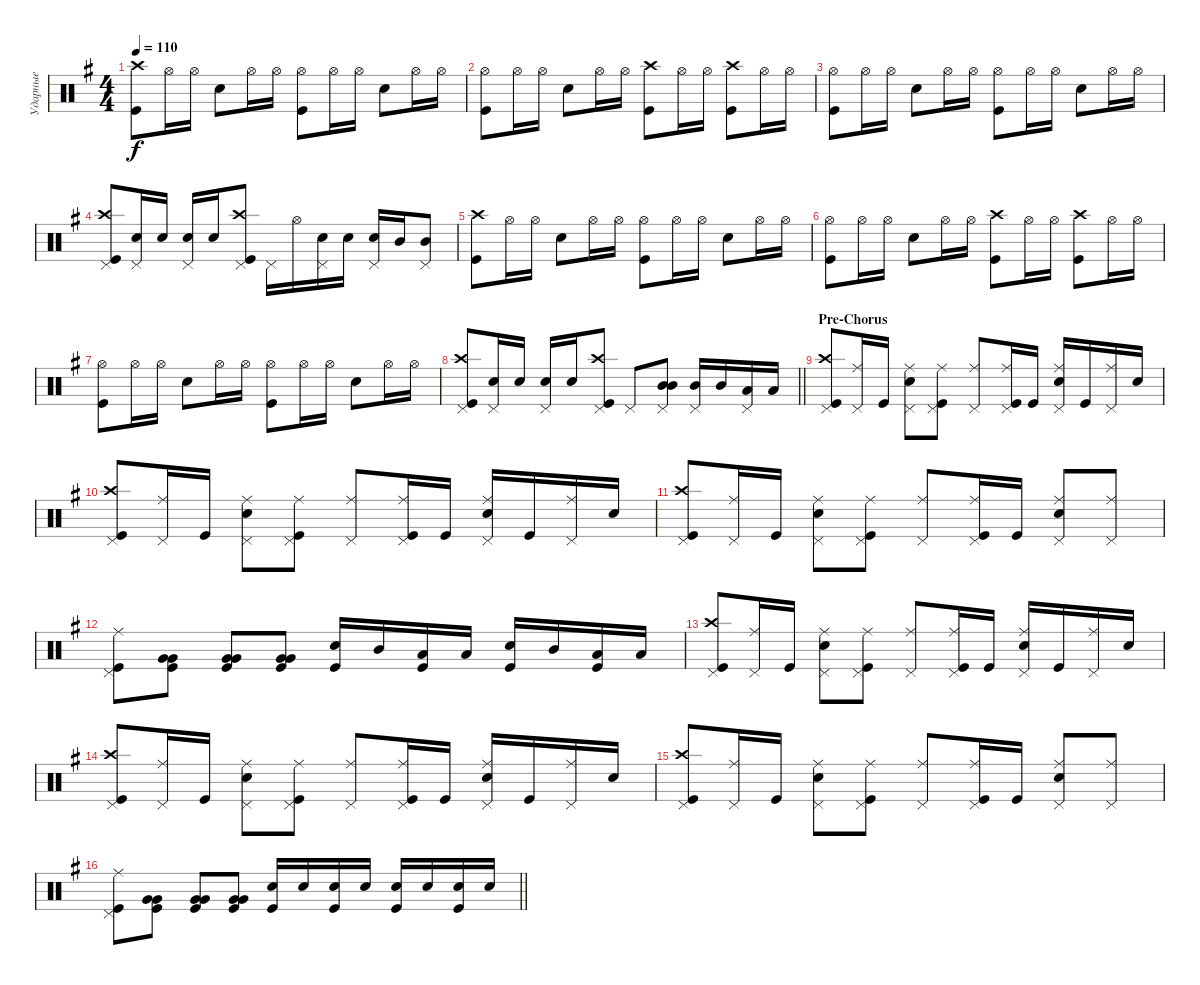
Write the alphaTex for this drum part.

\track ("Ударные" "Ударные") {instrument percussion}
\staff {score}
\articulation defaults
\ts (4 4)
\tempo 110
\clef neutral
\ks eminor
("Kick (hit)" "Crash high (hit)").8{dy f} "Hi-Hat (open)".16 "Hi-Hat (open)".16 "Snare (hit) 2".8 "Hi-Hat (open)".16 "Hi-Hat (open)".16 ("Kick (hit)" "Hi-Hat (open)").8 "Hi-Hat (open)".16 "Hi-Hat (open)".16 "Snare (hit) 2".8 "Hi-Hat (open)".16 "Hi-Hat (open)".16 |
("Kick (hit)" "Hi-Hat (open)").8 "Hi-Hat (open)".16 "Hi-Hat (open)".16 "Snare (hit) 2".8 "Hi-Hat (open)".16 "Hi-Hat (open)".16 ("Kick (hit)" "Crash high (hit)").8 "Hi-Hat (open)".16 "Hi-Hat (open)".16 ("Kick (hit)" "Crash high (hit)").8 "Hi-Hat (open)".16 "Hi-Hat (open)".16 |
("Kick (hit)" "Hi-Hat (open)").8 "Hi-Hat (open)".16 "Hi-Hat (open)".16 "Snare (hit) 2".8 "Hi-Hat (open)".16 "Hi-Hat (open)".16 ("Kick (hit)" "Hi-Hat (open)").8 "Hi-Hat (open)".16 "Hi-Hat (open)".16 "Snare (hit) 2".8 "Hi-Hat (open)".16 "Hi-Hat (open)".16 |
("Kick (hit)" "Crash high (hit)" "Pedal Hi-Hat (hit)").8 ("Snare (hit) 2" "Pedal Hi-Hat (hit)").16 "Snare (hit) 2".16 ("Snare (hit) 2" "Pedal Hi-Hat (hit)").16 "Snare (hit) 2".16 ("Kick (hit)" "Crash high (hit)" "Pedal Hi-Hat (hit)").8 "Pedal Hi-Hat (hit)".16 "Hi-Hat (open)".16 ("Snare (hit) 2" "Pedal Hi-Hat (hit)").16 "Snare (hit) 2".16 ("Snare (hit) 2" "Pedal Hi-Hat (hit)").16 "Mid Tom (hit)".16 ("Mid Tom (hit)" "Pedal Hi-Hat (hit)").8 |
("Kick (hit)" "Crash high (hit)").8 "Hi-Hat (open)".16 "Hi-Hat (open)".16 "Snare (hit) 2".8 "Hi-Hat (open)".16 "Hi-Hat (open)".16 ("Kick (hit)" "Hi-Hat (open)").8 "Hi-Hat (open)".16 "Hi-Hat (open)".16 "Snare (hit) 2".8 "Hi-Hat (open)".16 "Hi-Hat (open)".16 |
("Kick (hit)" "Hi-Hat (open)").8 "Hi-Hat (open)".16 "Hi-Hat (open)".16 "Snare (hit) 2".8 "Hi-Hat (open)".16 "Hi-Hat (open)".16 ("Kick (hit)" "Crash high (hit)").8 "Hi-Hat (open)".16 "Hi-Hat (open)".16 ("Kick (hit)" "Crash high (hit)").8 "Hi-Hat (open)".16 "Hi-Hat (open)".16 |
("Kick (hit)" "Hi-Hat (open)").8 "Hi-Hat (open)".16 "Hi-Hat (open)".16 "Snare (hit) 2".8 "Hi-Hat (open)".16 "Hi-Hat (open)".16 ("Kick (hit)" "Hi-Hat (open)").8 "Hi-Hat (open)".16 "Hi-Hat (open)".16 "Snare (hit) 2".8 "Hi-Hat (open)".16 "Hi-Hat (open)".16 |
\barLineRight lightlight
("Kick (hit)" "Crash high (hit)" "Pedal Hi-Hat (hit)").8 ("Snare (hit) 2" "Pedal Hi-Hat (hit)").16 "Snare (hit) 2".16 ("Snare (hit) 2" "Pedal Hi-Hat (hit)").16 "Snare (hit) 2".16 ("Kick (hit)" "Crash high (hit)" "Pedal Hi-Hat (hit)").8 "Pedal Hi-Hat (hit)".8 ("Mid Tom (hit)" "Mid Tom (hit)" "Pedal Hi-Hat (hit)").8{bd 480} ("Mid Tom (hit)" "Pedal Hi-Hat (hit)").16 "Mid Tom (hit)".16 ("Low Tom (hit)" "Pedal Hi-Hat (hit)").16 "Low Tom (hit)".16 |
\section ("" "Pre-Chorus")
("Kick (hit)" "Crash high (hit)" "Pedal Hi-Hat (hit)").8 ("Ride (middle)" "Pedal Hi-Hat (hit)").16 "Kick (hit)".16 ("Snare (hit) 2" "Ride (middle)" "Pedal Hi-Hat (hit)").8 ("Kick (hit)" "Ride (middle)" "Pedal Hi-Hat (hit)").8 ("Ride (middle)" "Pedal Hi-Hat (hit)").8 ("Kick (hit)" "Ride (middle)" "Pedal Hi-Hat (hit)").16 "Kick (hit)".16 ("Snare (hit) 2" "Ride (middle)" "Pedal Hi-Hat (hit)").16 "Kick (hit)".16 ("Ride (middle)" "Pedal Hi-Hat (hit)").16 "Snare (hit) 2".16 |
("Kick (hit)" "Crash high (hit)" "Pedal Hi-Hat (hit)").8 ("Ride (middle)" "Pedal Hi-Hat (hit)").16 "Kick (hit)".16 ("Snare (hit) 2" "Ride (middle)" "Pedal Hi-Hat (hit)").8 ("Kick (hit)" "Ride (middle)" "Pedal Hi-Hat (hit)").8 ("Ride (middle)" "Pedal Hi-Hat (hit)").8 ("Kick (hit)" "Ride (middle)" "Pedal Hi-Hat (hit)").16 "Kick (hit)".16 ("Snare (hit) 2" "Ride (middle)" "Pedal Hi-Hat (hit)").16 "Kick (hit)".16 ("Ride (middle)" "Pedal Hi-Hat (hit)").16 "Snare (hit) 2".16 |
("Kick (hit)" "Crash high (hit)" "Pedal Hi-Hat (hit)").8 ("Ride (middle)" "Pedal Hi-Hat (hit)").16 "Kick (hit)".16 ("Snare (hit) 2" "Ride (middle)" "Pedal Hi-Hat (hit)").8 ("Kick (hit)" "Ride (middle)" "Pedal Hi-Hat (hit)").8 ("Ride (middle)" "Pedal Hi-Hat (hit)").8 ("Kick (hit)" "Ride (middle)" "Pedal Hi-Hat (hit)").16 "Kick (hit)".16 ("Snare (hit) 2" "Ride (middle)" "Pedal Hi-Hat (hit)").8 ("Ride (middle)" "Pedal Hi-Hat (hit)").8 |
("Kick (hit)" "Pedal Hi-Hat (hit)" "Ride (middle)").8 ("Very Low Tom (hit)" "Very Low Tom (hit)" "Kick (hit)").8{bd 120} ("Kick (hit)" "Very Low Tom (hit)" "Very Low Tom (hit)").8{bd 120} ("Very Low Tom (hit)" "Very Low Tom (hit)" "Kick (hit)").8{bd 480} ("Snare (hit) 2" "Kick (hit)").16 "Mid Tom (hit)".16 ("Kick (hit)" "Low Tom (hit)").16 "Low Tom (hit)".16 ("Snare (hit) 2" "Kick (hit)").16 "Mid Tom (hit)".16 ("Kick (hit)" "Low Tom (hit)").16 "Low Tom (hit)".16 |
("Kick (hit)" "Crash high (hit)" "Pedal Hi-Hat (hit)").8 ("Ride (middle)" "Pedal Hi-Hat (hit)").16 "Kick (hit)".16 ("Snare (hit) 2" "Ride (middle)" "Pedal Hi-Hat (hit)").8 ("Kick (hit)" "Ride (middle)" "Pedal Hi-Hat (hit)").8 ("Ride (middle)" "Pedal Hi-Hat (hit)").8 ("Kick (hit)" "Ride (middle)" "Pedal Hi-Hat (hit)").16 "Kick (hit)".16 ("Snare (hit) 2" "Ride (middle)" "Pedal Hi-Hat (hit)").16 "Kick (hit)".16 ("Ride (middle)" "Pedal Hi-Hat (hit)").16 "Snare (hit) 2".16 |
("Kick (hit)" "Crash high (hit)" "Pedal Hi-Hat (hit)").8 ("Ride (middle)" "Pedal Hi-Hat (hit)").16 "Kick (hit)".16 ("Snare (hit) 2" "Ride (middle)" "Pedal Hi-Hat (hit)").8 ("Kick (hit)" "Ride (middle)" "Pedal Hi-Hat (hit)").8 ("Ride (middle)" "Pedal Hi-Hat (hit)").8 ("Kick (hit)" "Ride (middle)" "Pedal Hi-Hat (hit)").16 "Kick (hit)".16 ("Snare (hit) 2" "Ride (middle)" "Pedal Hi-Hat (hit)").16 "Kick (hit)".16 ("Ride (middle)" "Pedal Hi-Hat (hit)").16 "Snare (hit) 2".16 |
("Kick (hit)" "Crash high (hit)" "Pedal Hi-Hat (hit)").8 ("Ride (middle)" "Pedal Hi-Hat (hit)").16 "Kick (hit)".16 ("Snare (hit) 2" "Ride (middle)" "Pedal Hi-Hat (hit)").8 ("Kick (hit)" "Ride (middle)" "Pedal Hi-Hat (hit)").8 ("Ride (middle)" "Pedal Hi-Hat (hit)").8 ("Kick (hit)" "Ride (middle)" "Pedal Hi-Hat (hit)").16 "Kick (hit)".16 ("Snare (hit) 2" "Ride (middle)" "Pedal Hi-Hat (hit)").8 ("Ride (middle)" "Pedal Hi-Hat (hit)").8 |
\barLineRight lightlight
("Kick (hit)" "Pedal Hi-Hat (hit)" "Ride (middle)").8 ("Very Low Tom (hit)" "Very Low Tom (hit)" "Kick (hit)").8{bd 120} ("Kick (hit)" "Very Low Tom (hit)" "Very Low Tom (hit)").8{bd 120} ("Very Low Tom (hit)" "Very Low Tom (hit)" "Kick (hit)").8{bd 480} ("Snare (hit) 2" "Kick (hit)").16 "Snare (hit) 2".16 ("Kick (hit)" "Snare (hit) 2").16 "Snare (hit) 2".16 ("Snare (hit) 2" "Kick (hit)").16 "Snare (hit) 2".16 ("Snare (hit) 2" "Kick (hit)").16 "Snare (hit) 2".16
